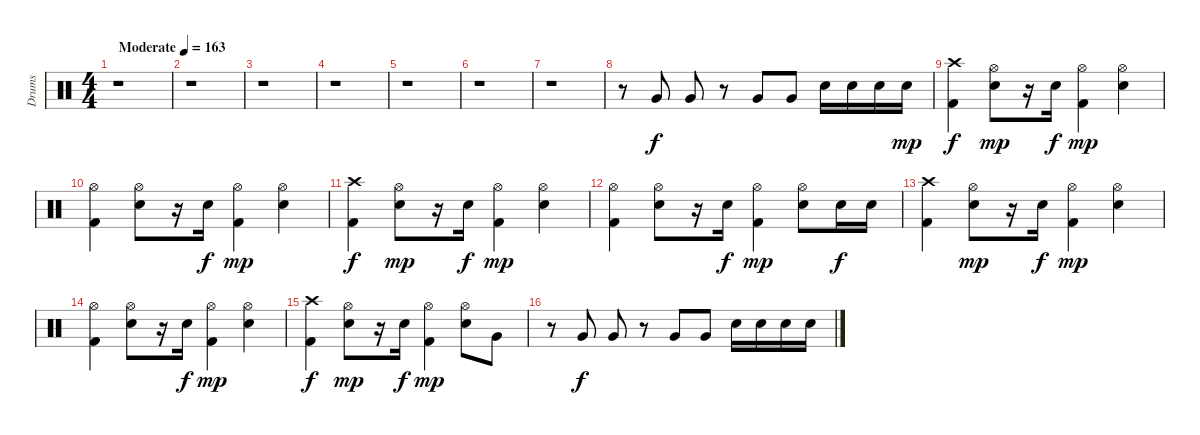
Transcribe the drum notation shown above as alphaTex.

\track ("Drums" "Drums") {instrument percussion}
\staff {score}
\articulation defaults
\ts (4 4)
\tempo (163 "Moderate")
\clef neutral
\ks c
r.1{dy f} |
r.1 |
r.1 |
r.1 |
r.1 |
r.1 |
r.1 |
r.8 "Very Low Tom (hit)".8 "Very Low Tom (hit)".8 r.8 "Very Low Tom (hit)".8 "Very Low Tom (hit)".8 "Snare (hit) 2".16 "Snare (hit) 2".16 "Snare (hit) 2".16 "Snare (hit) 2".16{dy mp} |
("Crash high (hit)" "Kick (hit) 2").4{dy f} ("Hi-Hat (open)" "Snare (hit) 2").8{dy mp} r.16 "Snare (hit) 2".16{dy f} ("Hi-Hat (open)" "Kick (hit) 2").4{dy mp} ("Hi-Hat (open)" "Snare (hit) 2").4 |
("Hi-Hat (open)" "Kick (hit) 2").4 ("Hi-Hat (open)" "Snare (hit) 2").8 r.16 "Snare (hit) 2".16{dy f} ("Hi-Hat (open)" "Kick (hit) 2").4{dy mp} ("Hi-Hat (open)" "Snare (hit) 2").4 |
("Crash high (hit)" "Kick (hit) 2").4{dy f} ("Hi-Hat (open)" "Snare (hit) 2").8{dy mp} r.16 "Snare (hit) 2".16{dy f} ("Hi-Hat (open)" "Kick (hit) 2").4{dy mp} ("Hi-Hat (open)" "Snare (hit) 2").4 |
("Hi-Hat (open)" "Kick (hit) 2").4 ("Hi-Hat (open)" "Snare (hit) 2").8 r.16 "Snare (hit) 2".16{dy f} ("Hi-Hat (open)" "Kick (hit) 2").4{dy mp} ("Hi-Hat (open)" "Snare (hit) 2").8 "Snare (hit) 2".16{dy f} "Snare (hit) 2".16 |
("Crash high (hit)" "Kick (hit) 2").4 ("Hi-Hat (open)" "Snare (hit) 2").8{dy mp} r.16 "Snare (hit) 2".16{dy f} ("Hi-Hat (open)" "Kick (hit) 2").4{dy mp} ("Hi-Hat (open)" "Snare (hit) 2").4 |
("Hi-Hat (open)" "Kick (hit) 2").4 ("Hi-Hat (open)" "Snare (hit) 2").8 r.16 "Snare (hit) 2".16{dy f} ("Hi-Hat (open)" "Kick (hit) 2").4{dy mp} ("Hi-Hat (open)" "Snare (hit) 2").4 |
("Crash high (hit)" "Kick (hit) 2").4{dy f} ("Hi-Hat (open)" "Snare (hit) 2").8{dy mp} r.16 "Snare (hit) 2".16{dy f} ("Hi-Hat (open)" "Kick (hit) 2").4{dy mp} ("Hi-Hat (open)" "Snare (hit) 2").8 "Very Low Tom (hit)".8 |
r.8 "Very Low Tom (hit)".8{dy f} "Very Low Tom (hit)".8 r.8 "Very Low Tom (hit)".8 "Very Low Tom (hit)".8 "Snare (hit) 2".16 "Snare (hit) 2".16 "Snare (hit) 2".16 "Snare (hit) 2".16
